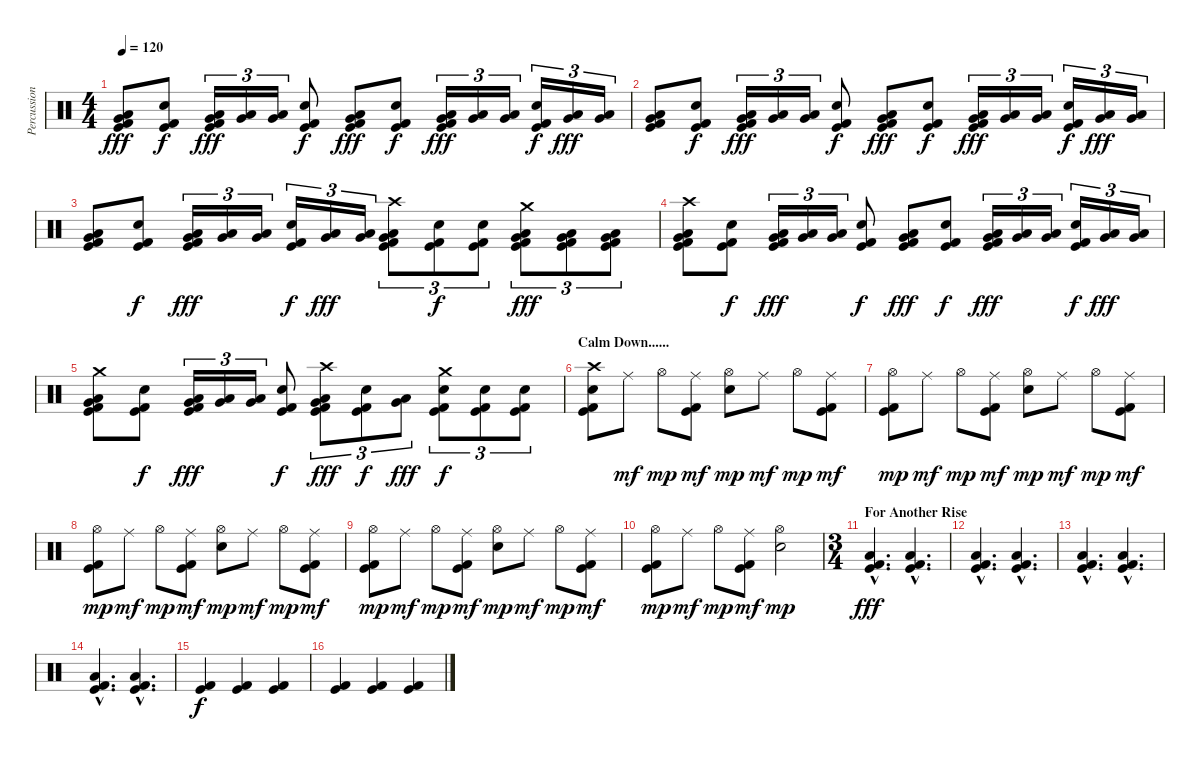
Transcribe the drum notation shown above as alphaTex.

\track ("Percussion" "Percussion") {instrument percussion}
\staff {score}
\articulation defaults
\ts (4 4)
\tempo 120
\clef neutral
\ks c
("Low Tom (hit)" "Very Low Tom (hit)" "Kick (hit)" "Kick (hit) 2").8{dy fff} ("Snare (hit) 2" "Kick (hit)" "Kick (hit) 2").8{dy f} ("Low Tom (hit)" "Very Low Tom (hit)" "Kick (hit)" "Kick (hit) 2").16{tu (3 2) dy fff} ("Low Tom (hit)" "Very Low Tom (hit)").16{tu (3 2)} ("Low Tom (hit)" "Very Low Tom (hit)").16{tu (3 2)} ("Snare (hit) 2" "Kick (hit)" "Kick (hit) 2").8{dy f} ("Low Tom (hit)" "Very Low Tom (hit)" "Kick (hit)" "Kick (hit) 2").8{dy fff} ("Snare (hit) 2" "Kick (hit)" "Kick (hit) 2").8{dy f} ("Low Tom (hit)" "Very Low Tom (hit)" "Kick (hit)" "Kick (hit) 2").16{tu (3 2) dy fff} ("Low Tom (hit)" "Very Low Tom (hit)").16{tu (3 2)} ("Low Tom (hit)" "Very Low Tom (hit)").16{tu (3 2)} ("Snare (hit) 2" "Kick (hit)" "Kick (hit) 2").16{tu (3 2) dy f} ("Low Tom (hit)" "Very Low Tom (hit)").16{tu (3 2) dy fff} ("Low Tom (hit)" "Very Low Tom (hit)").16{tu (3 2)} |
("Low Tom (hit)" "Very Low Tom (hit)" "Kick (hit)" "Kick (hit) 2").8 ("Snare (hit) 2" "Kick (hit)" "Kick (hit) 2").8{dy f} ("Low Tom (hit)" "Very Low Tom (hit)" "Kick (hit)" "Kick (hit) 2").16{tu (3 2) dy fff} ("Low Tom (hit)" "Very Low Tom (hit)").16{tu (3 2)} ("Low Tom (hit)" "Very Low Tom (hit)").16{tu (3 2)} ("Snare (hit) 2" "Kick (hit)" "Kick (hit) 2").8{dy f} ("Low Tom (hit)" "Very Low Tom (hit)" "Kick (hit)" "Kick (hit) 2").8{dy fff} ("Snare (hit) 2" "Kick (hit)" "Kick (hit) 2").8{dy f} ("Low Tom (hit)" "Very Low Tom (hit)" "Kick (hit)" "Kick (hit) 2").16{tu (3 2) dy fff} ("Low Tom (hit)" "Very Low Tom (hit)").16{tu (3 2)} ("Low Tom (hit)" "Very Low Tom (hit)").16{tu (3 2)} ("Snare (hit) 2" "Kick (hit)" "Kick (hit) 2").16{tu (3 2) dy f} ("Low Tom (hit)" "Very Low Tom (hit)").16{tu (3 2) dy fff} ("Low Tom (hit)" "Very Low Tom (hit)").16{tu (3 2)} |
("Low Tom (hit)" "Very Low Tom (hit)" "Kick (hit)" "Kick (hit) 2").8 ("Snare (hit) 2" "Kick (hit)" "Kick (hit) 2").8{dy f} ("Low Tom (hit)" "Very Low Tom (hit)" "Kick (hit)" "Kick (hit) 2").16{tu (3 2) dy fff} ("Low Tom (hit)" "Very Low Tom (hit)").16{tu (3 2)} ("Low Tom (hit)" "Very Low Tom (hit)").16{tu (3 2)} ("Snare (hit) 2" "Kick (hit)" "Kick (hit) 2").16{tu (3 2) dy f} ("Low Tom (hit)" "Very Low Tom (hit)").16{tu (3 2) dy fff} ("Low Tom (hit)" "Very Low Tom (hit)").16{tu (3 2)} ("Crash high (hit)" "Low Tom (hit)" "Very Low Tom (hit)" "Kick (hit)" "Kick (hit) 2").8{tu (3 2)} ("Snare (hit) 2" "Kick (hit)" "Kick (hit) 2").8{tu (3 2) dy f} ("Snare (hit) 2" "Kick (hit)" "Kick (hit) 2").8{tu (3 2)} ("Crash medium (hit)" "Low Tom (hit)" "Very Low Tom (hit)" "Kick (hit)" "Kick (hit) 2").8{tu (3 2) dy fff} ("Low Tom (hit)" "Very Low Tom (hit)" "Kick (hit)" "Kick (hit) 2").8{tu (3 2)} ("Low Tom (hit)" "Very Low Tom (hit)" "Kick (hit)" "Kick (hit) 2").8{tu (3 2)} |
("Crash high (hit)" "Low Tom (hit)" "Very Low Tom (hit)" "Kick (hit)" "Kick (hit) 2").8 ("Snare (hit) 2" "Kick (hit)" "Kick (hit) 2").8{dy f} ("Low Tom (hit)" "Very Low Tom (hit)" "Kick (hit)" "Kick (hit) 2").16{tu (3 2) dy fff} ("Low Tom (hit)" "Very Low Tom (hit)").16{tu (3 2)} ("Low Tom (hit)" "Very Low Tom (hit)").16{tu (3 2)} ("Snare (hit) 2" "Kick (hit)" "Kick (hit) 2").8{dy f} ("Low Tom (hit)" "Very Low Tom (hit)" "Kick (hit)" "Kick (hit) 2").8{dy fff} ("Snare (hit) 2" "Kick (hit)" "Kick (hit) 2").8{dy f} ("Low Tom (hit)" "Very Low Tom (hit)" "Kick (hit)" "Kick (hit) 2").16{tu (3 2) dy fff} ("Low Tom (hit)" "Very Low Tom (hit)").16{tu (3 2)} ("Low Tom (hit)" "Very Low Tom (hit)").16{tu (3 2)} ("Snare (hit) 2" "Kick (hit)" "Kick (hit) 2").16{tu (3 2) dy f} ("Low Tom (hit)" "Very Low Tom (hit)").16{tu (3 2) dy fff} ("Low Tom (hit)" "Very Low Tom (hit)").16{tu (3 2)} |
("Crash medium (hit)" "Low Tom (hit)" "Very Low Tom (hit)" "Kick (hit)" "Kick (hit) 2").8 ("Snare (hit) 2" "Kick (hit)" "Kick (hit) 2").8{dy f} ("Low Tom (hit)" "Very Low Tom (hit)" "Kick (hit)" "Kick (hit) 2").16{tu (3 2) dy fff} ("Low Tom (hit)" "Very Low Tom (hit)").16{tu (3 2)} ("Low Tom (hit)" "Very Low Tom (hit)").16{tu (3 2)} ("Snare (hit) 2" "Kick (hit)" "Kick (hit) 2").8{dy f} ("Crash high (hit)" "Low Tom (hit)" "Very Low Tom (hit)" "Kick (hit)" "Kick (hit) 2").8{tu (3 2) dy fff} ("Snare (hit) 2" "Kick (hit)" "Kick (hit) 2").8{tu (3 2) dy f} ("Low Tom (hit)" "Very Low Tom (hit)").8{tu (3 2) dy fff} ("Crash medium (hit)" "Snare (hit) 2" "Kick (hit)" "Kick (hit) 2").8{tu (3 2) dy f} ("Snare (hit) 2" "Kick (hit)" "Kick (hit) 2").8{tu (3 2)} ("Snare (hit) 2" "Kick (hit)" "Kick (hit) 2").8{tu (3 2)} |
\section ("" "Calm Down......")
("Crash high (hit)" "Snare (hit) 2" "Kick (hit)" "Kick (hit) 2").8 "Ride (middle)".8{dy mf} "Hi-Hat (open)".8{dy mp} ("Ride (middle)" "Kick (hit)" "Kick (hit) 2").8{dy mf} ("Hi-Hat (open)" "Snare (hit) 2").8{dy mp} "Ride (middle)".8{dy mf} "Hi-Hat (open)".8{dy mp} ("Ride (middle)" "Kick (hit)" "Kick (hit) 2").8{dy mf} |
("Hi-Hat (open)" "Kick (hit)" "Kick (hit) 2").8{dy mp} "Ride (middle)".8{dy mf} "Hi-Hat (open)".8{dy mp} ("Ride (middle)" "Kick (hit)" "Kick (hit) 2").8{dy mf} ("Hi-Hat (open)" "Snare (hit) 2").8{dy mp} "Ride (middle)".8{dy mf} "Hi-Hat (open)".8{dy mp} ("Ride (middle)" "Kick (hit)" "Kick (hit) 2").8{dy mf} |
("Hi-Hat (open)" "Kick (hit)" "Kick (hit) 2").8{dy mp} "Ride (middle)".8{dy mf} "Hi-Hat (open)".8{dy mp} ("Ride (middle)" "Kick (hit)" "Kick (hit) 2").8{dy mf} ("Hi-Hat (open)" "Snare (hit) 2").8{dy mp} "Ride (middle)".8{dy mf} "Hi-Hat (open)".8{dy mp} ("Ride (middle)" "Kick (hit)" "Kick (hit) 2").8{dy mf} |
("Hi-Hat (open)" "Kick (hit)" "Kick (hit) 2").8{dy mp} "Ride (middle)".8{dy mf} "Hi-Hat (open)".8{dy mp} ("Ride (middle)" "Kick (hit)" "Kick (hit) 2").8{dy mf} ("Hi-Hat (open)" "Snare (hit) 2").8{dy mp} "Ride (middle)".8{dy mf} "Hi-Hat (open)".8{dy mp} ("Ride (middle)" "Kick (hit)" "Kick (hit) 2").8{dy mf} |
("Hi-Hat (open)" "Kick (hit)" "Kick (hit) 2").8{dy mp} "Ride (middle)".8{dy mf} "Hi-Hat (open)".8{dy mp} ("Ride (middle)" "Kick (hit)" "Kick (hit) 2").8{dy mf} ("Hi-Hat (open)" "Snare (hit) 2").2{dy mp} |
\ts (3 4)
\section ("" "For Another Rise")
("Low Floor Tom (hit)"{hac} "Kick (hit)"{hac} "Kick (hit) 2"{hac}).4{d dy fff} ("Low Floor Tom (hit)"{hac} "Kick (hit)"{hac} "Kick (hit) 2"{hac}).4{d} |
("Low Floor Tom (hit)"{hac} "Kick (hit)"{hac} "Kick (hit) 2"{hac}).4{d} ("Low Floor Tom (hit)"{hac} "Kick (hit)"{hac} "Kick (hit) 2"{hac}).4{d} |
("Low Floor Tom (hit)"{hac} "Kick (hit)"{hac} "Kick (hit) 2"{hac}).4{d} ("Low Floor Tom (hit)"{hac} "Kick (hit)"{hac} "Kick (hit) 2"{hac}).4{d} |
("Low Floor Tom (hit)"{hac} "Kick (hit)"{hac} "Kick (hit) 2"{hac}).4{d} ("Low Floor Tom (hit)"{hac} "Kick (hit)"{hac} "Kick (hit) 2"{hac}).4{d} |
("Kick (hit)" "Kick (hit) 2").4{dy f} ("Kick (hit)" "Kick (hit) 2").4 ("Kick (hit)" "Kick (hit) 2").4 |
("Kick (hit)" "Kick (hit) 2").4 ("Kick (hit)" "Kick (hit) 2").4 ("Kick (hit)" "Kick (hit) 2").4
